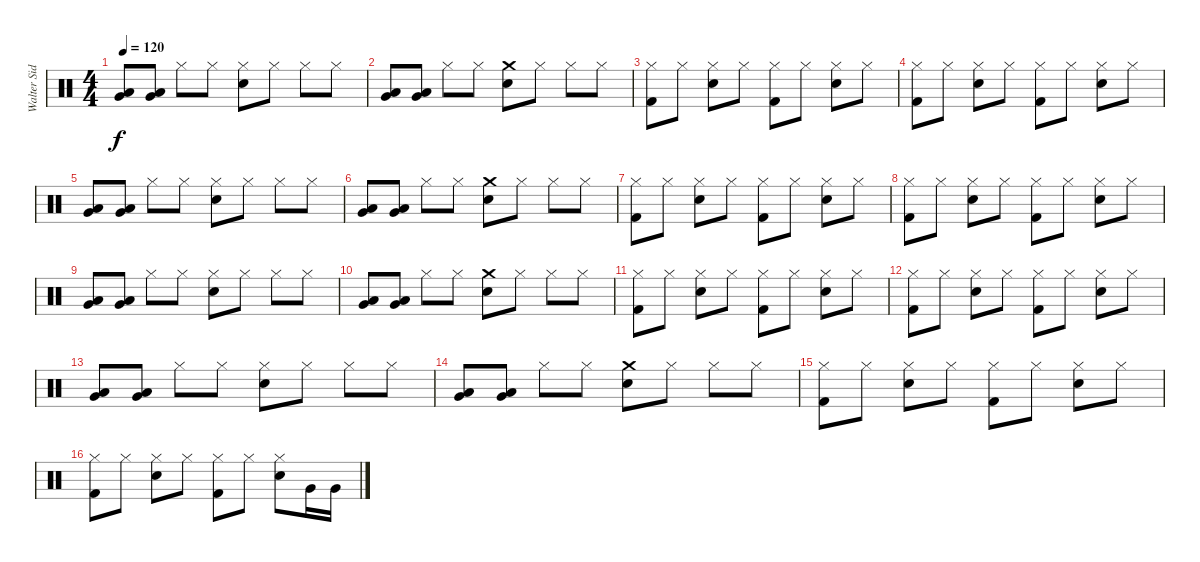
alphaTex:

\track ("Walter Sidotti" "Walter Sid") {instrument percussion}
\staff {score}
\articulation defaults
\ts (4 4)
\tempo 120
\clef neutral
\ks c
("Very Low Tom (hit)" "Low Tom (hit)").8{dy f} ("Very Low Tom (hit)" "Low Tom (hit)").8 "Hi-Hat (closed)".8 "Hi-Hat (closed)".8 ("Hi-Hat (closed)" "Electric Snare (hit)").8 "Hi-Hat (closed)".8 "Hi-Hat (closed)".8 "Hi-Hat (closed)".8 |
("Very Low Tom (hit)" "Low Tom (hit)").8 ("Very Low Tom (hit)" "Low Tom (hit)").8 "Hi-Hat (closed)".8 "Hi-Hat (closed)".8 ("Crash medium (hit)" "Electric Snare (hit)").8 "Hi-Hat (closed)".8 "Hi-Hat (closed)".8 "Hi-Hat (closed)".8 |
("Kick (hit) 2" "Hi-Hat (closed)").8 "Hi-Hat (closed)".8 ("Electric Snare (hit)" "Hi-Hat (closed)").8 "Hi-Hat (closed)".8 ("Kick (hit) 2" "Hi-Hat (closed)").8 "Hi-Hat (closed)".8 ("Electric Snare (hit)" "Hi-Hat (closed)").8 "Hi-Hat (closed)".8 |
("Kick (hit) 2" "Hi-Hat (closed)").8 "Hi-Hat (closed)".8 ("Electric Snare (hit)" "Hi-Hat (closed)").8 "Hi-Hat (closed)".8 ("Kick (hit) 2" "Hi-Hat (closed)").8 "Hi-Hat (closed)".8 ("Electric Snare (hit)" "Hi-Hat (closed)").8 "Hi-Hat (closed)".8 |
("Very Low Tom (hit)" "Low Tom (hit)").8 ("Very Low Tom (hit)" "Low Tom (hit)").8 "Hi-Hat (closed)".8 "Hi-Hat (closed)".8 ("Hi-Hat (closed)" "Electric Snare (hit)").8 "Hi-Hat (closed)".8 "Hi-Hat (closed)".8 "Hi-Hat (closed)".8 |
("Very Low Tom (hit)" "Low Tom (hit)").8 ("Very Low Tom (hit)" "Low Tom (hit)").8 "Hi-Hat (closed)".8 "Hi-Hat (closed)".8 ("Crash medium (hit)" "Electric Snare (hit)").8 "Hi-Hat (closed)".8 "Hi-Hat (closed)".8 "Hi-Hat (closed)".8 |
("Kick (hit) 2" "Hi-Hat (closed)").8 "Hi-Hat (closed)".8 ("Electric Snare (hit)" "Hi-Hat (closed)").8 "Hi-Hat (closed)".8 ("Kick (hit) 2" "Hi-Hat (closed)").8 "Hi-Hat (closed)".8 ("Electric Snare (hit)" "Hi-Hat (closed)").8 "Hi-Hat (closed)".8 |
("Kick (hit) 2" "Hi-Hat (closed)").8 "Hi-Hat (closed)".8 ("Electric Snare (hit)" "Hi-Hat (closed)").8 "Hi-Hat (closed)".8 ("Kick (hit) 2" "Hi-Hat (closed)").8 "Hi-Hat (closed)".8 ("Electric Snare (hit)" "Hi-Hat (closed)").8 "Hi-Hat (closed)".8 |
("Very Low Tom (hit)" "Low Tom (hit)").8 ("Very Low Tom (hit)" "Low Tom (hit)").8 "Hi-Hat (closed)".8 "Hi-Hat (closed)".8 ("Hi-Hat (closed)" "Electric Snare (hit)").8 "Hi-Hat (closed)".8 "Hi-Hat (closed)".8 "Hi-Hat (closed)".8 |
("Very Low Tom (hit)" "Low Tom (hit)").8 ("Very Low Tom (hit)" "Low Tom (hit)").8 "Hi-Hat (closed)".8 "Hi-Hat (closed)".8 ("Crash medium (hit)" "Electric Snare (hit)").8 "Hi-Hat (closed)".8 "Hi-Hat (closed)".8 "Hi-Hat (closed)".8 |
("Kick (hit) 2" "Hi-Hat (closed)").8 "Hi-Hat (closed)".8 ("Electric Snare (hit)" "Hi-Hat (closed)").8 "Hi-Hat (closed)".8 ("Kick (hit) 2" "Hi-Hat (closed)").8 "Hi-Hat (closed)".8 ("Electric Snare (hit)" "Hi-Hat (closed)").8 "Hi-Hat (closed)".8 |
("Kick (hit) 2" "Hi-Hat (closed)").8 "Hi-Hat (closed)".8 ("Electric Snare (hit)" "Hi-Hat (closed)").8 "Hi-Hat (closed)".8 ("Kick (hit) 2" "Hi-Hat (closed)").8 "Hi-Hat (closed)".8 ("Electric Snare (hit)" "Hi-Hat (closed)").8 "Hi-Hat (closed)".8 |
("Very Low Tom (hit)" "Low Tom (hit)").8 ("Very Low Tom (hit)" "Low Tom (hit)").8 "Hi-Hat (closed)".8 "Hi-Hat (closed)".8 ("Hi-Hat (closed)" "Electric Snare (hit)").8 "Hi-Hat (closed)".8 "Hi-Hat (closed)".8 "Hi-Hat (closed)".8 |
("Very Low Tom (hit)" "Low Tom (hit)").8 ("Very Low Tom (hit)" "Low Tom (hit)").8 "Hi-Hat (closed)".8 "Hi-Hat (closed)".8 ("Crash medium (hit)" "Electric Snare (hit)").8 "Hi-Hat (closed)".8 "Hi-Hat (closed)".8 "Hi-Hat (closed)".8 |
("Kick (hit) 2" "Hi-Hat (closed)").8 "Hi-Hat (closed)".8 ("Electric Snare (hit)" "Hi-Hat (closed)").8 "Hi-Hat (closed)".8 ("Kick (hit) 2" "Hi-Hat (closed)").8 "Hi-Hat (closed)".8 ("Electric Snare (hit)" "Hi-Hat (closed)").8 "Hi-Hat (closed)".8 |
("Kick (hit) 2" "Hi-Hat (closed)").8 "Hi-Hat (closed)".8 ("Electric Snare (hit)" "Hi-Hat (closed)").8 "Hi-Hat (closed)".8 ("Kick (hit) 2" "Hi-Hat (closed)").8 "Hi-Hat (closed)".8 ("Electric Snare (hit)" "Hi-Hat (closed)").8 "Very Low Tom (hit)".16 "Very Low Tom (hit)".16
